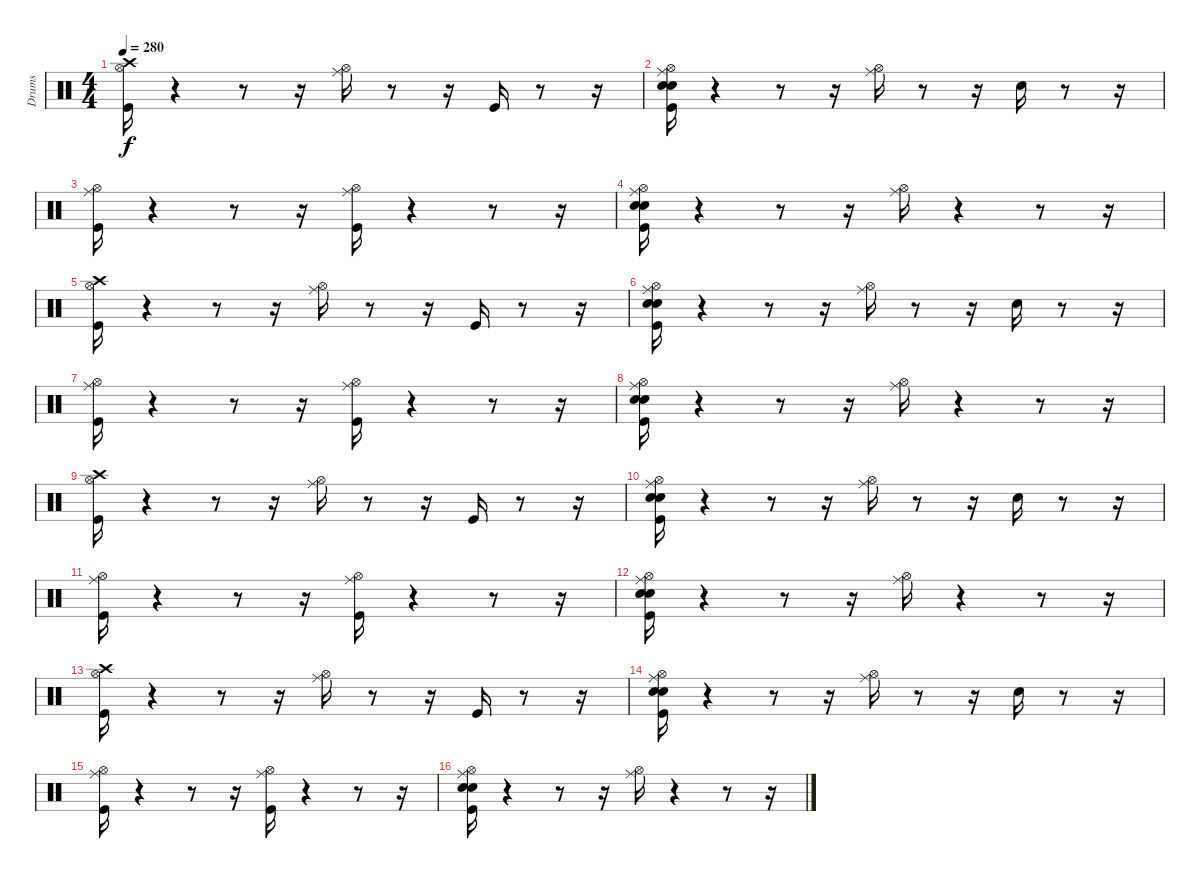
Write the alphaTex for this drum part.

\track ("Drums" "Drums") {instrument percussion}
\staff {score}
\articulation defaults
\ts (4 4)
\tempo 280
\clef neutral
\ks c
("Crash high (hit)" "Hi-Hat (open)" "Kick (hit)").16{dy f} r.4 r.8 r.16 ("Hi-Hat (open)" "Ride (middle)").16 r.8 r.16 "Kick (hit)".16 r.8 r.16 |
("Hi-Hat (open)" "Kick (hit)" "Snare (hit) 2" "Electric Snare (hit)" "Ride (middle)").16 r.4 r.8 r.16 ("Hi-Hat (open)" "Ride (middle)").16 r.8 r.16 "Snare (hit) 2".16 r.8 r.16 |
("Ride (middle)" "Hi-Hat (open)" "Kick (hit)").16 r.4 r.8 r.16 ("Hi-Hat (open)" "Ride (middle)" "Kick (hit)").16 r.4 r.8 r.16 |
("Ride (middle)" "Hi-Hat (open)" "Kick (hit)" "Snare (hit) 2" "Electric Snare (hit)").16 r.4 r.8 r.16 ("Hi-Hat (open)" "Ride (middle)").16 r.4 r.8 r.16 |
("Kick (hit)" "Hi-Hat (open)" "Crash high (hit)").16 r.4 r.8 r.16 ("Hi-Hat (open)" "Ride (middle)").16 r.8 r.16 "Kick (hit)".16 r.8 r.16 |
("Hi-Hat (open)" "Kick (hit)" "Snare (hit) 2" "Electric Snare (hit)" "Ride (middle)").16 r.4 r.8 r.16 ("Hi-Hat (open)" "Ride (middle)").16 r.8 r.16 "Snare (hit) 2".16 r.8 r.16 |
("Ride (middle)" "Hi-Hat (open)" "Kick (hit)").16 r.4 r.8 r.16 ("Hi-Hat (open)" "Ride (middle)" "Kick (hit)").16 r.4 r.8 r.16 |
("Ride (middle)" "Hi-Hat (open)" "Kick (hit)" "Snare (hit) 2" "Electric Snare (hit)").16 r.4 r.8 r.16 ("Hi-Hat (open)" "Ride (middle)").16 r.4 r.8 r.16 |
("Crash high (hit)" "Hi-Hat (open)" "Kick (hit)").16 r.4 r.8 r.16 ("Hi-Hat (open)" "Ride (middle)").16 r.8 r.16 "Kick (hit)".16 r.8 r.16 |
("Hi-Hat (open)" "Kick (hit)" "Snare (hit) 2" "Electric Snare (hit)" "Ride (middle)").16 r.4 r.8 r.16 ("Hi-Hat (open)" "Ride (middle)").16 r.8 r.16 "Snare (hit) 2".16 r.8 r.16 |
("Ride (middle)" "Hi-Hat (open)" "Kick (hit)").16 r.4 r.8 r.16 ("Hi-Hat (open)" "Ride (middle)" "Kick (hit)").16 r.4 r.8 r.16 |
("Ride (middle)" "Hi-Hat (open)" "Kick (hit)" "Snare (hit) 2" "Electric Snare (hit)").16 r.4 r.8 r.16 ("Hi-Hat (open)" "Ride (middle)").16 r.4 r.8 r.16 |
("Kick (hit)" "Hi-Hat (open)" "Crash high (hit)").16 r.4 r.8 r.16 ("Hi-Hat (open)" "Ride (middle)").16 r.8 r.16 "Kick (hit)".16 r.8 r.16 |
("Hi-Hat (open)" "Kick (hit)" "Snare (hit) 2" "Electric Snare (hit)" "Ride (middle)").16 r.4 r.8 r.16 ("Hi-Hat (open)" "Ride (middle)").16 r.8 r.16 "Snare (hit) 2".16 r.8 r.16 |
("Ride (middle)" "Hi-Hat (open)" "Kick (hit)").16 r.4 r.8 r.16 ("Hi-Hat (open)" "Ride (middle)" "Kick (hit)").16 r.4 r.8 r.16 |
("Ride (middle)" "Hi-Hat (open)" "Kick (hit)" "Snare (hit) 2" "Electric Snare (hit)").16 r.4 r.8 r.16 ("Hi-Hat (open)" "Ride (middle)").16 r.4 r.8 r.16
